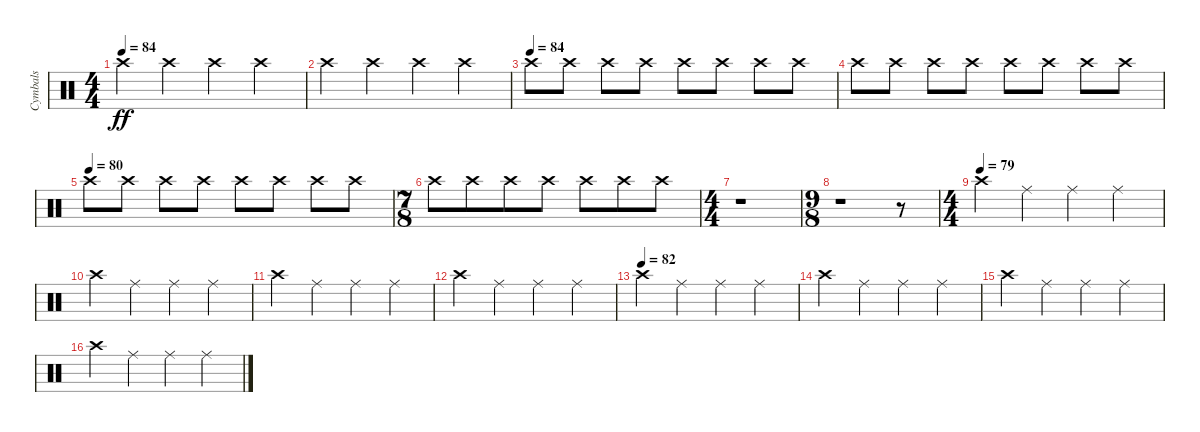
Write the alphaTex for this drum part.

\track ("Cymbals" "Cymbals") {instrument percussion}
\staff {score}
\articulation defaults
\ts (4 4)
\tempo 84
\clef neutral
\ks c "Crash high (hit)".4{dy ff} "Crash high (hit)".4 "Crash high (hit)".4 "Crash high (hit)".4
|
"Crash high (hit)".4 "Crash high (hit)".4 "Crash high (hit)".4 "Crash high (hit)".4 |
\tempo (84)
"Crash high (hit)".8 "Crash high (hit)".8 "Crash high (hit)".8 "Crash high (hit)".8 "Crash high (hit)".8 "Crash high (hit)".8 "Crash high (hit)".8 "Crash high (hit)".8 |
"Crash high (hit)".8 "Crash high (hit)".8 "Crash high (hit)".8 "Crash high (hit)".8 "Crash high (hit)".8 "Crash high (hit)".8 "Crash high (hit)".8 "Crash high (hit)".8 |
\tempo (80)
"Crash high (hit)".8 "Crash high (hit)".8 "Crash high (hit)".8 "Crash high (hit)".8 "Crash high (hit)".8 "Crash high (hit)".8 "Crash high (hit)".8 "Crash high (hit)".8 |
\ts (7 8)
"Crash high (hit)".8 "Crash high (hit)".8 "Crash high (hit)".8 "Crash high (hit)".8 "Crash high (hit)".8 "Crash high (hit)".8 "Crash high (hit)".8 |
\ts (4 4)
r.1 |
\ts (9 8)
r.1 r.8 |
\ts (4 4)
\tempo (79)
"Crash high (hit)".4 "Ride (middle)".4 "Ride (middle)".4 "Ride (middle)".4 |
"Crash high (hit)".4 "Ride (middle)".4 "Ride (middle)".4 "Ride (middle)".4 |
"Crash high (hit)".4 "Ride (middle)".4 "Ride (middle)".4 "Ride (middle)".4 |
"Crash high (hit)".4 "Ride (middle)".4 "Ride (middle)".4 "Ride (middle)".4 |
\tempo (82)
"Crash high (hit)".4 "Ride (middle)".4 "Ride (middle)".4 "Ride (middle)".4 |
"Crash high (hit)".4 "Ride (middle)".4 "Ride (middle)".4 "Ride (middle)".4 |
"Crash high (hit)".4 "Ride (middle)".4 "Ride (middle)".4 "Ride (middle)".4 |
"Crash high (hit)".4 "Ride (middle)".4 "Ride (middle)".4 "Ride (middle)".4
